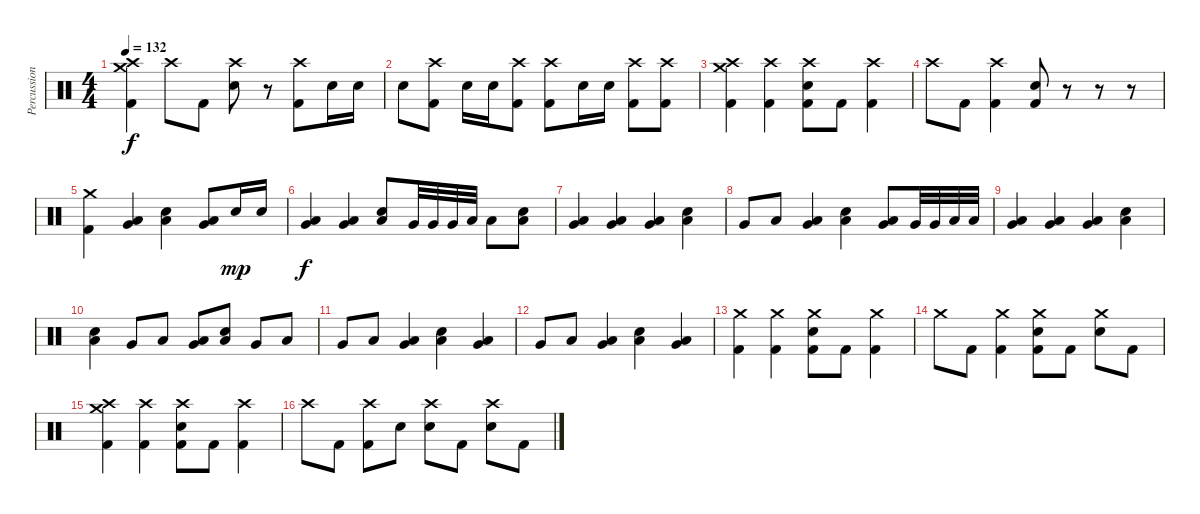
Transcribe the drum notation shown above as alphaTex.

\track ("Percussion" "Percussion") {instrument percussion}
\staff {score}
\articulation defaults
\ts (4 4)
\tempo 132
\clef neutral
\ks c
("Crash medium (hit)" "Crash high (hit)" "Kick (hit) 2").4{dy f} "Crash high (hit)".8 "Kick (hit) 2".8 ("Crash high (hit)" "Electric Snare (hit)").8 r.8 ("Crash high (hit)" "Kick (hit) 2").8 "Electric Snare (hit)".16 "Electric Snare (hit)".16 |
"Electric Snare (hit)".8 ("Crash high (hit)" "Kick (hit) 2").8 "Electric Snare (hit)".16 "Electric Snare (hit)".16 ("Crash high (hit)" "Kick (hit) 2").8 ("Crash high (hit)" "Kick (hit) 2").8 "Electric Snare (hit)".16 "Electric Snare (hit)".16 ("Crash high (hit)" "Kick (hit) 2").8 ("Crash high (hit)" "Kick (hit) 2").8 |
("Crash medium (hit)" "Crash high (hit)" "Kick (hit) 2").4 ("Crash high (hit)" "Kick (hit) 2").4 ("Crash high (hit)" "Electric Snare (hit)" "Kick (hit) 2").8 "Kick (hit) 2".8 ("Crash high (hit)" "Kick (hit) 2").4 |
"Crash high (hit)".8 "Kick (hit) 2".8 ("Crash high (hit)" "Kick (hit) 2").4 ("Electric Snare (hit)" "Kick (hit) 2").8 r.8 r.8 r.8 |
("Crash medium (hit)" "Kick (hit) 2").4 ("Very Low Tom (hit)" "Low Floor Tom (hit)").4 ("Electric Snare (hit)" "Low Floor Tom (hit)").4 ("Very Low Tom (hit)" "Low Floor Tom (hit)").8 "Electric Snare (hit)".16{dy mp} "Electric Snare (hit)".16 |
("Very Low Tom (hit)" "Low Floor Tom (hit)").4{dy f} ("Very Low Tom (hit)" "Low Floor Tom (hit)").4 ("Electric Snare (hit)" "Low Floor Tom (hit)").8 "Very Low Tom (hit)".32 "Very Low Tom (hit)".32 "Very Low Tom (hit)".32 "Low Floor Tom (hit)".32 "Low Floor Tom (hit)".8 ("Electric Snare (hit)" "Low Floor Tom (hit)").8 |
("Very Low Tom (hit)" "Low Floor Tom (hit)").4 ("Very Low Tom (hit)" "Low Floor Tom (hit)").4 ("Very Low Tom (hit)" "Low Floor Tom (hit)").4 ("Electric Snare (hit)" "Low Floor Tom (hit)").4 |
"Very Low Tom (hit)".8 "Low Floor Tom (hit)".8 ("Very Low Tom (hit)" "Low Floor Tom (hit)").4 ("Electric Snare (hit)" "Low Floor Tom (hit)").4 ("Very Low Tom (hit)" "Low Floor Tom (hit)").8 "Very Low Tom (hit)".32 "Very Low Tom (hit)".32 "Low Floor Tom (hit)".32 "Low Floor Tom (hit)".32 |
("Very Low Tom (hit)" "Low Floor Tom (hit)").4 ("Very Low Tom (hit)" "Low Floor Tom (hit)").4 ("Very Low Tom (hit)" "Low Floor Tom (hit)").4 ("Electric Snare (hit)" "Low Floor Tom (hit)").4 |
("Electric Snare (hit)" "Low Floor Tom (hit)").4 "Very Low Tom (hit)".8 "Low Floor Tom (hit)".8 ("Very Low Tom (hit)" "Low Floor Tom (hit)").8 ("Electric Snare (hit)" "Low Floor Tom (hit)").8 "Very Low Tom (hit)".8 "Low Floor Tom (hit)".8 |
"Very Low Tom (hit)".8 "Low Floor Tom (hit)".8 ("Very Low Tom (hit)" "Low Floor Tom (hit)").4 ("Electric Snare (hit)" "Low Floor Tom (hit)").4 ("Very Low Tom (hit)" "Low Floor Tom (hit)").4 |
"Very Low Tom (hit)".8 "Low Floor Tom (hit)".8 ("Very Low Tom (hit)" "Low Floor Tom (hit)").4 ("Electric Snare (hit)" "Low Floor Tom (hit)").4 ("Very Low Tom (hit)" "Low Floor Tom (hit)").4 |
("Crash medium (hit)" "Kick (hit) 2").4 ("Crash medium (hit)" "Kick (hit) 2").4 ("Crash medium (hit)" "Electric Snare (hit)" "Kick (hit) 2").8 "Kick (hit) 2".8 ("Crash medium (hit)" "Kick (hit) 2").4 |
"Crash medium (hit)".8 "Kick (hit) 2".8 ("Crash medium (hit)" "Kick (hit) 2").4 ("Crash medium (hit)" "Electric Snare (hit)" "Kick (hit) 2").8 "Kick (hit) 2".8 ("Crash medium (hit)" "Electric Snare (hit)").8 "Kick (hit) 2".8 |
("Crash medium (hit)" "Crash high (hit)" "Kick (hit) 2").4 ("Crash high (hit)" "Kick (hit) 2").4 ("Crash high (hit)" "Electric Snare (hit)" "Kick (hit) 2").8 "Kick (hit) 2".8 ("Crash high (hit)" "Kick (hit) 2").4 |
"Crash high (hit)".8 "Kick (hit) 2".8 ("Crash high (hit)" "Kick (hit) 2").8 "Electric Snare (hit)".8 ("Crash high (hit)" "Electric Snare (hit)").8 "Kick (hit) 2".8 ("Crash high (hit)" "Electric Snare (hit)").8 "Kick (hit) 2".8
